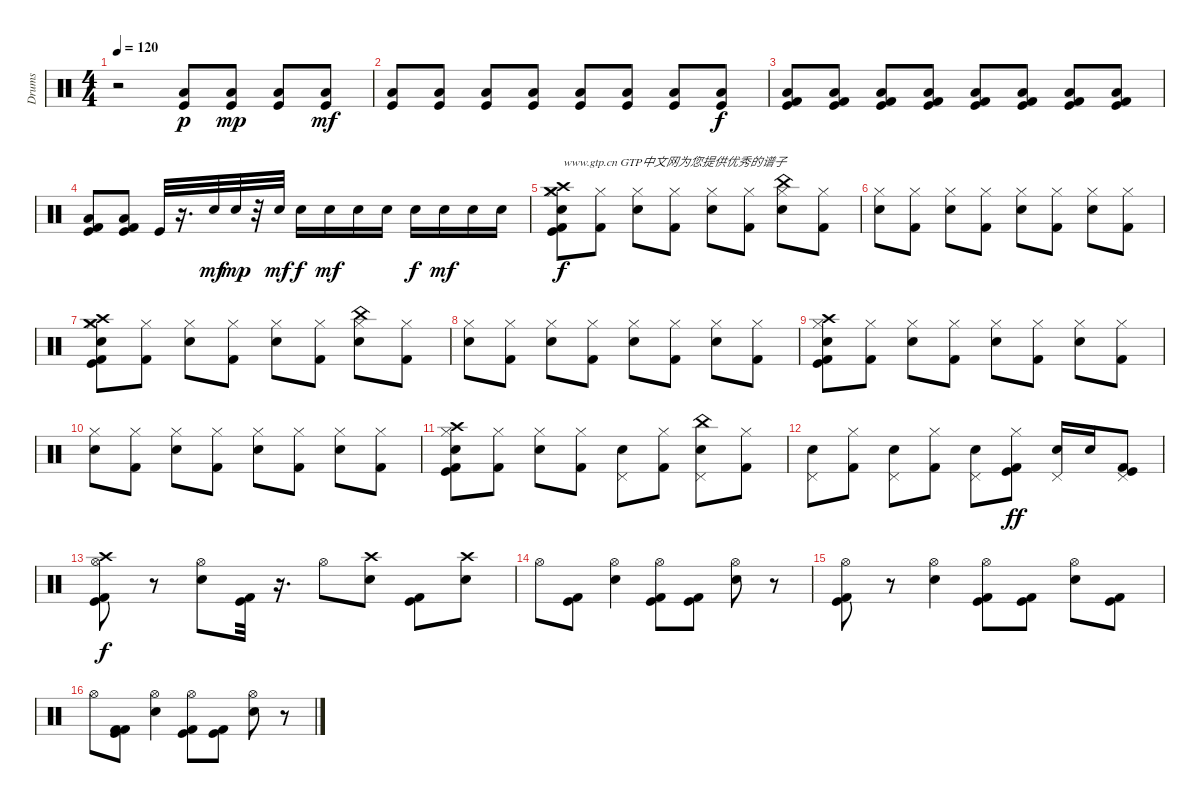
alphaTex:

\track ("Drums" "Drums") {instrument percussion}
\staff {score}
\articulation defaults
\ts (4 4)
\tempo 120
\clef neutral
\ks c
r.2{dy p} ("Low Tom (hit)" "Kick (hit)").8 ("Low Tom (hit)" "Kick (hit)").8{dy mp} ("Low Tom (hit)" "Kick (hit)").8 ("Low Tom (hit)" "Kick (hit)").8{dy mf} |
("Low Tom (hit)" "Kick (hit)").8 ("Low Tom (hit)" "Kick (hit)").8 ("Low Tom (hit)" "Kick (hit)").8 ("Low Tom (hit)" "Kick (hit)").8 ("Low Tom (hit)" "Kick (hit)").8 ("Low Tom (hit)" "Kick (hit)").8 ("Low Tom (hit)" "Kick (hit)").8 ("Low Tom (hit)" "Kick (hit)").8{dy f} |
("Kick (hit) 2" "Low Tom (hit)" "Kick (hit)").8 ("Kick (hit) 2" "Low Tom (hit)" "Kick (hit)").8 ("Kick (hit) 2" "Low Tom (hit)" "Kick (hit)").8 ("Kick (hit) 2" "Low Tom (hit)" "Kick (hit)").8 ("Kick (hit) 2" "Low Tom (hit)" "Kick (hit)").8 ("Kick (hit) 2" "Low Tom (hit)" "Kick (hit)").8 ("Kick (hit) 2" "Low Tom (hit)" "Kick (hit)").8 ("Kick (hit) 2" "Low Tom (hit)" "Kick (hit)").8 |
("Kick (hit) 2" "Low Tom (hit)" "Kick (hit)").8 ("Kick (hit) 2" "Low Tom (hit)" "Kick (hit)").8 "Kick (hit)".32 r.16{d} "Electric Snare (hit)".32{dy mf} "Electric Snare (hit)".32{dy mp} r.32 "Electric Snare (hit)".32{dy mf} "Snare (hit) 2".16{dy f} "Snare (hit) 2".16{dy mf} "Snare (hit) 2".16 "Snare (hit) 2".16 "Snare (hit) 2".16{dy f} "Snare (hit) 2".16{dy mf} "Snare (hit) 2".16 "Snare (hit) 2".16 |
("Snare (hit) 2" "Kick (hit)" "Kick (hit) 2" "Crash medium (hit)" "Crash high (hit)" "Hi-Hat (closed)").8{txt "www.gtp.cn GTP中文网为您提供优秀的谱子" dy f} ("Hi-Hat (closed)" "Kick (hit) 2").8 ("Hi-Hat (closed)" "Snare (hit) 2").8 ("Hi-Hat (closed)" "Kick (hit) 2").8 ("Hi-Hat (closed)" "Snare (hit) 2").8 ("Hi-Hat (closed)" "Kick (hit) 2").8 ("China (hit)" "Snare (hit) 2" "Hi-Hat (closed)").8 ("Kick (hit) 2" "Hi-Hat (closed)").8 |
("Snare (hit) 2" "Hi-Hat (closed)").8 ("Kick (hit) 2" "Hi-Hat (closed)").8 ("Hi-Hat (closed)" "Snare (hit) 2").8 ("Hi-Hat (closed)" "Kick (hit) 2").8 ("Snare (hit) 2" "Hi-Hat (closed)").8 ("Kick (hit) 2" "Hi-Hat (closed)").8 ("Hi-Hat (closed)" "Snare (hit) 2").8 ("Hi-Hat (closed)" "Kick (hit) 2").8 |
("Crash high (hit)" "Kick (hit) 2" "Snare (hit) 2" "Kick (hit)" "Crash medium (hit)" "Hi-Hat (closed)").8 ("Hi-Hat (closed)" "Kick (hit) 2").8 ("Hi-Hat (closed)" "Snare (hit) 2").8 ("Hi-Hat (closed)" "Kick (hit) 2").8 ("Hi-Hat (closed)" "Snare (hit) 2").8 ("Hi-Hat (closed)" "Kick (hit) 2").8 ("Snare (hit) 2" "China (hit)" "Hi-Hat (closed)").8 ("Kick (hit) 2" "Hi-Hat (closed)").8 |
("Snare (hit) 2" "Hi-Hat (closed)").8 ("Kick (hit) 2" "Hi-Hat (closed)").8 ("Hi-Hat (closed)" "Snare (hit) 2").8 ("Hi-Hat (closed)" "Kick (hit) 2").8 ("Hi-Hat (closed)" "Snare (hit) 2").8 ("Kick (hit) 2" "Hi-Hat (closed)").8 ("Hi-Hat (closed)" "Snare (hit) 2").8 ("Hi-Hat (closed)" "Kick (hit) 2").8 |
("Snare (hit) 2" "Kick (hit)" "Kick (hit) 2" "Crash high (hit)" "Hi-Hat (closed)").8 ("Hi-Hat (closed)" "Kick (hit) 2").8 ("Hi-Hat (closed)" "Snare (hit) 2").8 ("Hi-Hat (closed)" "Kick (hit) 2").8 ("Hi-Hat (closed)" "Snare (hit) 2").8 ("Hi-Hat (closed)" "Kick (hit) 2").8 ("Snare (hit) 2" "Hi-Hat (closed)").8 ("Kick (hit) 2" "Hi-Hat (closed)").8 |
("Snare (hit) 2" "Hi-Hat (closed)").8 ("Kick (hit) 2" "Hi-Hat (closed)").8 ("Hi-Hat (closed)" "Snare (hit) 2").8 ("Hi-Hat (closed)" "Kick (hit) 2").8 ("Hi-Hat (closed)" "Snare (hit) 2").8 ("Kick (hit) 2" "Hi-Hat (closed)").8 ("Hi-Hat (closed)" "Snare (hit) 2").8 ("Hi-Hat (closed)" "Kick (hit) 2").8 |
("Hi-Hat (closed)" "Kick (hit)" "Kick (hit) 2" "Snare (hit) 2" "Crash high (hit)").8 ("Hi-Hat (closed)" "Kick (hit) 2").8 ("Hi-Hat (closed)" "Snare (hit) 2").8 ("Hi-Hat (closed)" "Kick (hit) 2").8 ("Pedal Hi-Hat (hit)" "Snare (hit) 2").8 ("Hi-Hat (closed)" "Kick (hit) 2").8 ("China (hit)" "Snare (hit) 2" "Pedal Hi-Hat (hit)").8 ("Kick (hit) 2" "Hi-Hat (closed)").8 |
("Snare (hit) 2" "Pedal Hi-Hat (hit)").8 ("Kick (hit) 2" "Hi-Hat (closed)").8 ("Pedal Hi-Hat (hit)" "Snare (hit) 2").8 ("Hi-Hat (closed)" "Kick (hit) 2").8 ("Snare (hit) 2" "Pedal Hi-Hat (hit)").8 ("Hi-Hat (closed)" "Kick (hit) 2" "Kick (hit)").8{dy ff} ("Snare (hit) 2" "Pedal Hi-Hat (hit)").16 "Snare (hit) 2".16 ("Pedal Hi-Hat (hit)" "Kick (hit)" "Kick (hit) 2").8 |
("Kick (hit) 2" "Kick (hit)" "Hi-Hat (open)" "Crash high (hit)").8{dy f} r.8 ("Snare (hit) 2" "Hi-Hat (open)").8 ("Kick (hit) 2" "Kick (hit)").32 r.16{d} "Hi-Hat (open)".8 ("Snare (hit) 2" "Crash high (hit)").8 ("Kick (hit)" "Kick (hit) 2").8 ("Crash high (hit)" "Snare (hit) 2").8 |
"Hi-Hat (open)".8 ("Kick (hit)" "Kick (hit) 2").8 ("Snare (hit) 2" "Hi-Hat (open)").4 ("Hi-Hat (open)" "Kick (hit)" "Kick (hit) 2").8 ("Kick (hit)" "Kick (hit) 2").8 ("Snare (hit) 2" "Hi-Hat (open)").8 r.8 |
("Kick (hit) 2" "Kick (hit)" "Hi-Hat (open)").8 r.8 ("Snare (hit) 2" "Hi-Hat (open)").4 ("Hi-Hat (open)" "Kick (hit) 2" "Kick (hit)").8 ("Kick (hit)" "Kick (hit) 2").8 ("Snare (hit) 2" "Hi-Hat (open)").8 ("Kick (hit)" "Kick (hit) 2").8 |
"Hi-Hat (open)".8 ("Kick (hit) 2" "Kick (hit) 2" "Kick (hit)").8 ("Snare (hit) 2" "Hi-Hat (open)").4 ("Kick (hit)" "Hi-Hat (open)" "Kick (hit) 2").8 ("Kick (hit)" "Kick (hit) 2").8 ("Snare (hit) 2" "Hi-Hat (open)").8 r.8
